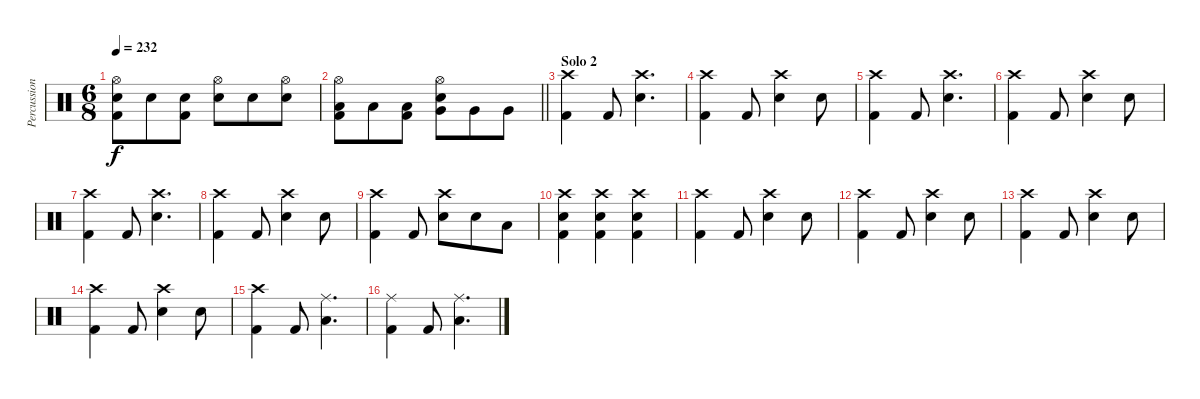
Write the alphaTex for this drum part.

\track ("Percussion" "Percussion") {instrument percussion}
\staff {score}
\articulation defaults
\ts (6 8)
\tempo 232
\clef neutral
\ks c
("Hi-Hat (open)" "Electric Snare (hit)" "Kick (hit) 2").8{dy f} "Electric Snare (hit)".8 ("Electric Snare (hit)" "Kick (hit) 2").8 ("Hi-Hat (open)" "Electric Snare (hit)").8 "Electric Snare (hit)".8 ("Hi-Hat (open)" "Electric Snare (hit)").8 |
\barLineRight lightlight
("Hi-Hat (open)" "Low Tom (hit)" "Kick (hit) 2").8 "Low Tom (hit)".8 ("Low Tom (hit)" "Kick (hit) 2").8 ("Hi-Hat (open)" "Electric Snare (hit)" "Very Low Tom (hit)").8 "Very Low Tom (hit)".8 "Very Low Tom (hit)".8 |
\section ("" "Solo 2")
("Crash high (hit)" "Kick (hit) 2").4 "Kick (hit) 2".8 ("Crash high (hit)" "Electric Snare (hit)").4{d} |
("Crash high (hit)" "Kick (hit) 2").4 "Kick (hit) 2".8 ("Crash high (hit)" "Electric Snare (hit)").4 "Electric Snare (hit)".8 |
("Crash high (hit)" "Kick (hit) 2").4 "Kick (hit) 2".8 ("Crash high (hit)" "Electric Snare (hit)").4{d} |
("Crash high (hit)" "Kick (hit) 2").4 "Kick (hit) 2".8 ("Crash high (hit)" "Electric Snare (hit)").4 "Electric Snare (hit)".8 |
("Crash high (hit)" "Kick (hit) 2").4 "Kick (hit) 2".8 ("Crash high (hit)" "Electric Snare (hit)").4{d} |
("Crash high (hit)" "Kick (hit) 2").4 "Kick (hit) 2".8 ("Crash high (hit)" "Electric Snare (hit)").4 "Electric Snare (hit)".8 |
("Crash high (hit)" "Kick (hit) 2").4 "Kick (hit) 2".8 ("Crash high (hit)" "Electric Snare (hit)").8 "Electric Snare (hit)".8 "Low Tom (hit)".8 |
("Crash high (hit)" "Electric Snare (hit)" "Kick (hit) 2").4 ("Crash high (hit)" "Electric Snare (hit)" "Kick (hit) 2").4 ("Crash high (hit)" "Electric Snare (hit)" "Kick (hit) 2").4 |
("Crash high (hit)" "Kick (hit) 2").4 "Kick (hit) 2".8 ("Crash high (hit)" "Electric Snare (hit)").4 "Electric Snare (hit)".8 |
("Crash high (hit)" "Kick (hit) 2").4 "Kick (hit) 2".8 ("Crash high (hit)" "Electric Snare (hit)").4 "Electric Snare (hit)".8 |
("Crash high (hit)" "Kick (hit) 2").4 "Kick (hit) 2".8 ("Crash high (hit)" "Electric Snare (hit)").4 "Electric Snare (hit)".8 |
("Crash high (hit)" "Kick (hit) 2").4 "Kick (hit) 2".8 ("Crash high (hit)" "Electric Snare (hit)").4 "Electric Snare (hit)".8 |
("Crash high (hit)" "Kick (hit) 2").4 "Kick (hit) 2".8 ("Ride (middle)" "Low Tom (hit)").4{d} |
("Ride (middle)" "Kick (hit) 2").4 "Kick (hit) 2".8 ("Ride (middle)" "Low Tom (hit)").4{d}
